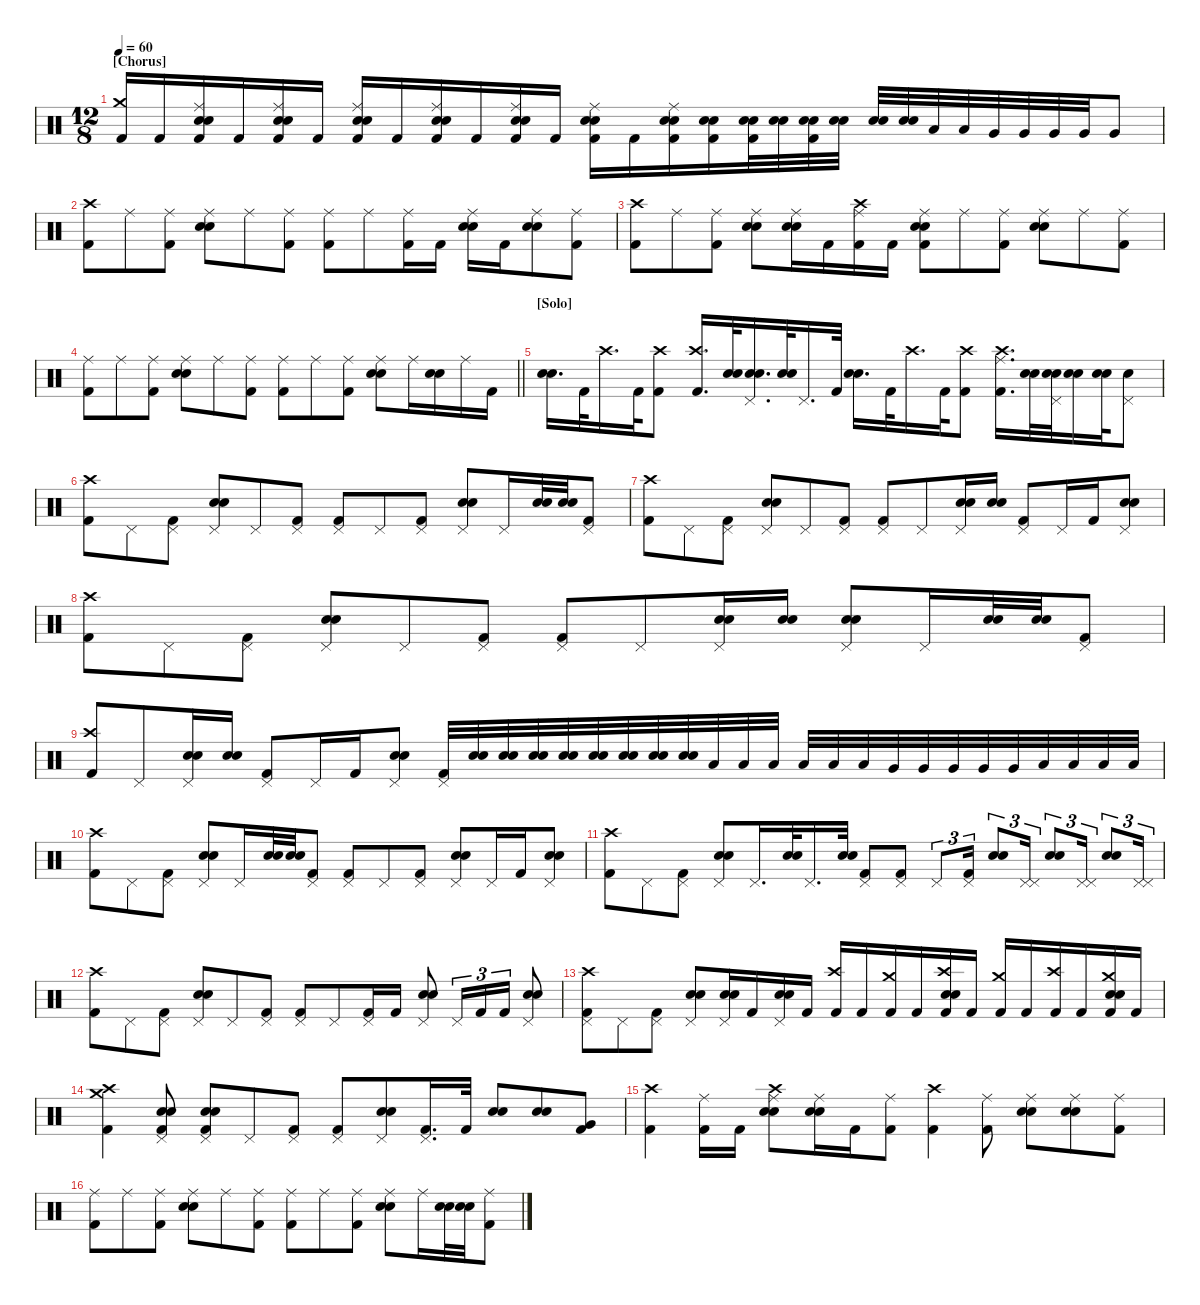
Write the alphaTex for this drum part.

\defaultSystemsLayout 4
\hideDynamics
\bracketExtendMode nobrackets
\singleTrackTrackNamePolicy hidden
\multiTrackTrackNamePolicy hidden
\otherSystemsTrackNameOrientation horizontal
\track ("Drums" "drm.") {instrument percussion}
\staff {score}
\articulation defaults
\ts (12 8)
\section ("" "[Chorus]")
\tempo 60
\clef neutral
\ks c
("Crash medium (hit)" "Kick (hit) 2").16{dy f beam Up} "Kick (hit) 2".16{beam Up} ("Ride (middle)" "Snare (hit) 2" "Kick (hit) 2" "Snare (hit) 2").16{beam Up} "Kick (hit) 2".16{beam Up} ("Ride (middle)" "Snare (hit) 2" "Kick (hit) 2" "Snare (hit) 2").16{beam Up} "Kick (hit) 2".16{beam Up} ("Ride (middle)" "Snare (hit) 2" "Kick (hit) 2" "Snare (hit) 2").16{beam Up} "Kick (hit) 2".16{beam Up} ("Ride (middle)" "Snare (hit) 2" "Kick (hit) 2" "Snare (hit) 2").16{beam Up} "Kick (hit) 2".16{beam Up} ("Ride (middle)" "Snare (hit) 2" "Kick (hit) 2" "Snare (hit) 2").16{beam Up} "Kick (hit) 2".16{beam Up} ("Ride (middle)" "Snare (hit) 2" "Kick (hit) 2" "Snare (hit) 2").16{beam Down} "Kick (hit) 2".16{beam Down} ("Ride (middle)" "Snare (hit) 2" "Kick (hit) 2" "Snare (hit) 2").16{beam Down} ("Snare (hit) 2" "Kick (hit) 2" "Snare (hit) 2").16{beam Down} ("Snare (hit) 2" "Kick (hit) 2" "Snare (hit) 2").32{beam Down} ("Snare (hit) 2" "Snare (hit) 2").32{beam Down} ("Snare (hit) 2" "Kick (hit) 2" "Snare (hit) 2").32{beam Down} ("Snare (hit) 2" "Snare (hit) 2").32{beam Down} ("Snare (hit) 2" "Snare (hit) 2").32{beam Up} ("Snare (hit) 2" "Snare (hit) 2").32{beam Up} "Low Tom (hit)".32{beam Up} "Low Tom (hit)".32{beam Up} "Very Low Tom (hit)".32{beam Up} "Very Low Tom (hit)".32{beam Up} "Very Low Tom (hit)".32{beam Up} "Very Low Tom (hit)".32{beam Up} "Very Low Tom (hit)".8{beam Up} |
("Crash high (hit)" "Kick (hit) 2").8{beam Down} "Ride (middle)".8{beam Down} ("Ride (middle)" "Kick (hit) 2").8{beam Down} ("Ride (middle)" "Snare (hit) 2" "Snare (hit) 2").8{beam Down} "Ride (middle)".8{beam Down} ("Ride (middle)" "Kick (hit) 2").8{beam Down} ("Ride (middle)" "Kick (hit) 2").8{beam Down} "Ride (middle)".8{beam Down} ("Ride (middle)" "Kick (hit) 2").16{beam Down} "Kick (hit) 2".16{beam Down} ("Ride (middle)" "Snare (hit) 2" "Snare (hit) 2").16{beam Down} "Kick (hit) 2".16{beam Down} ("Ride (middle)" "Snare (hit) 2" "Snare (hit) 2").8{beam Down} ("Ride (middle)" "Kick (hit) 2").8{beam Down} |
("Crash high (hit)" "Kick (hit) 2").8{beam Down} "Ride (middle)".8{beam Down} ("Ride (middle)" "Kick (hit) 2").8{beam Down} ("Ride (middle)" "Snare (hit) 2" "Snare (hit) 2").8{beam Down} ("Ride (middle)" "Snare (hit) 2" "Snare (hit) 2").16{beam Down} "Kick (hit) 2".16{beam Down} ("Ride (middle)" "Crash high (hit)" "Kick (hit) 2").16{beam Down} "Kick (hit) 2".16{beam Down} ("Ride (middle)" "Snare (hit) 2" "Kick (hit) 2" "Snare (hit) 2").8{beam Down} "Ride (middle)".8{beam Down} ("Ride (middle)" "Kick (hit) 2").8{beam Down} ("Ride (middle)" "Snare (hit) 2" "Snare (hit) 2").8{beam Down} "Ride (middle)".8{beam Down} ("Ride (middle)" "Kick (hit) 2").8{beam Down} |
\barLineRight lightlight
("Ride (middle)" "Kick (hit) 2").8{beam Down} "Ride (middle)".8{beam Down} ("Ride (middle)" "Kick (hit) 2").8{beam Down} ("Ride (middle)" "Snare (hit) 2" "Snare (hit) 2").8{beam Down} "Ride (middle)".8{beam Down} ("Ride (middle)" "Kick (hit) 2").8{beam Down} ("Ride (middle)" "Kick (hit) 2").8{beam Down} "Ride (middle)".8{beam Down} ("Ride (middle)" "Kick (hit) 2").8{beam Down} ("Ride (middle)" "Snare (hit) 2" "Snare (hit) 2").8{beam Down} "Ride (middle)".16{beam Down} ("Snare (hit) 2" "Snare (hit) 2").16{dy mf beam Down} "Ride (middle)".16{dy f beam Down} "Kick (hit) 2".16{beam Down} |
\section ("" "[Solo]")
("Snare (hit) 2" "Snare (hit) 2").16{d dy mf beam Down} "Kick (hit) 2".32{dy f beam Down} "Crash high (hit)".16{d beam Down} "Kick (hit) 2".32{beam Down} ("Crash high (hit)" "Kick (hit) 2").8{beam Down} ("Crash high (hit)" "Kick (hit) 2").16{d beam Up} ("Snare (hit) 2" "Snare (hit) 2").32{dy mf beam Up} ("Pedal Hi-Hat (hit)" "Snare (hit) 2" "Snare (hit) 2").16{d dy f beam Up} ("Snare (hit) 2" "Snare (hit) 2").32{beam Up} "Pedal Hi-Hat (hit)".16{d beam Up} "Kick (hit) 2".32{beam Up} ("Snare (hit) 2" "Snare (hit) 2").16{d beam Down} "Kick (hit) 2".32{beam Down} "Crash high (hit)".16{d beam Down} "Kick (hit) 2".32{beam Down} ("Kick (hit) 2" "Crash high (hit)").8{beam Down} ("Ride (middle)" "Kick (hit) 2" "Crash high (hit)").16{d beam Down} ("Snare (hit) 2" "Snare (hit) 2").32{beam Down} ("Pedal Hi-Hat (hit)" "Snare (hit) 2" "Snare (hit) 2").32{beam Down} ("Snare (hit) 2" "Snare (hit) 2").16{dy mf beam Down} ("Snare (hit) 2" "Snare (hit) 2").32{beam Down} ("Pedal Hi-Hat (hit)" "Snare (hit) 2").8{dy f beam Down} |
("Crash high (hit)" "Kick (hit) 2").8{dy fff beam Down} "Pedal Hi-Hat (hit)".8{dy f beam Down} ("Pedal Hi-Hat (hit)" "Kick (hit) 2").8{beam Down} ("Pedal Hi-Hat (hit)" "Snare (hit) 2" "Snare (hit) 2").8{beam Up} "Pedal Hi-Hat (hit)".8{beam Up} ("Pedal Hi-Hat (hit)" "Kick (hit) 2").8{beam Up} ("Pedal Hi-Hat (hit)" "Kick (hit) 2").8{beam Up} "Pedal Hi-Hat (hit)".8{beam Up} ("Pedal Hi-Hat (hit)" "Kick (hit) 2").8{beam Up} ("Pedal Hi-Hat (hit)" "Snare (hit) 2" "Snare (hit) 2").8{beam Up} "Pedal Hi-Hat (hit)".16{beam Up} ("Snare (hit) 2" "Snare (hit) 2").32{beam Up} ("Snare (hit) 2" "Snare (hit) 2").32{dy mf beam Up} ("Pedal Hi-Hat (hit)" "Kick (hit) 2").8{dy f beam Up} |
("Crash high (hit)" "Kick (hit) 2").8{dy fff beam Down} "Pedal Hi-Hat (hit)".8{dy f beam Down} ("Pedal Hi-Hat (hit)" "Kick (hit) 2").8{beam Down} ("Pedal Hi-Hat (hit)" "Snare (hit) 2" "Snare (hit) 2").8{beam Up} "Pedal Hi-Hat (hit)".8{beam Up} ("Pedal Hi-Hat (hit)" "Kick (hit) 2").8{beam Up} ("Pedal Hi-Hat (hit)" "Kick (hit) 2").8{beam Up} "Pedal Hi-Hat (hit)".8{beam Up} ("Pedal Hi-Hat (hit)" "Snare (hit) 2" "Snare (hit) 2").16{beam Up} ("Snare (hit) 2" "Snare (hit) 2").16{dy mf beam Up} ("Pedal Hi-Hat (hit)" "Kick (hit) 2").8{dy f beam Up} "Pedal Hi-Hat (hit)".16{beam Up} "Kick (hit) 2".16{beam Up} ("Pedal Hi-Hat (hit)" "Snare (hit) 2" "Snare (hit) 2").8{beam Up} |
("Crash high (hit)" "Kick (hit) 2").8{dy fff beam Down} "Pedal Hi-Hat (hit)".8{dy f beam Down} ("Pedal Hi-Hat (hit)" "Kick (hit) 2").8{beam Down} ("Pedal Hi-Hat (hit)" "Snare (hit) 2" "Snare (hit) 2").8{beam Up} "Pedal Hi-Hat (hit)".8{beam Up} ("Pedal Hi-Hat (hit)" "Kick (hit) 2").8{beam Up} ("Pedal Hi-Hat (hit)" "Kick (hit) 2").8{beam Up} "Pedal Hi-Hat (hit)".8{beam Up} ("Pedal Hi-Hat (hit)" "Snare (hit) 2" "Snare (hit) 2").16{beam Up} ("Snare (hit) 2" "Snare (hit) 2").16{dy mf beam Up} ("Pedal Hi-Hat (hit)" "Snare (hit) 2" "Snare (hit) 2").8{dy f beam Up} "Pedal Hi-Hat (hit)".16{beam Up} ("Snare (hit) 2" "Snare (hit) 2").32{beam Up} ("Snare (hit) 2" "Snare (hit) 2").32{beam Up} ("Pedal Hi-Hat (hit)" "Kick (hit) 2").8{beam Up} |
("Crash high (hit)" "Kick (hit) 2").8{dy fff beam Up} "Pedal Hi-Hat (hit)".8{dy f beam Up} ("Pedal Hi-Hat (hit)" "Snare (hit) 2" "Snare (hit) 2").16{beam Up} ("Snare (hit) 2" "Snare (hit) 2").16{dy mf beam Up} ("Pedal Hi-Hat (hit)" "Kick (hit) 2").8{dy f beam Up} "Pedal Hi-Hat (hit)".16{beam Up} "Kick (hit) 2".16{beam Up} ("Pedal Hi-Hat (hit)" "Snare (hit) 2" "Snare (hit) 2").8{beam Up} ("Pedal Hi-Hat (hit)" "Kick (hit) 2").32{beam Up} ("Snare (hit) 2" "Snare (hit) 2").32{dy mf beam Up} ("Snare (hit) 2" "Snare (hit) 2").32{beam Up} ("Snare (hit) 2" "Snare (hit) 2").32{beam Up} ("Snare (hit) 2" "Snare (hit) 2").32{beam Up} ("Snare (hit) 2" "Snare (hit) 2").32{beam Up} ("Snare (hit) 2" "Snare (hit) 2").32{beam Up} ("Snare (hit) 2" "Snare (hit) 2").32{beam Up} ("Snare (hit) 2" "Snare (hit) 2").32{beam Up} "Low Tom (hit)".32{dy f beam Up} "Low Tom (hit)".32{beam Up} "Low Tom (hit)".32{beam Up} "Low Tom (hit)".32{beam Up} "Low Tom (hit)".32{beam Up} "Low Tom (hit)".32{beam Up} "Very Low Tom (hit)".32{beam Up} "Very Low Tom (hit)".32{beam Up} "Very Low Tom (hit)".32{beam Up} "Very Low Tom (hit)".32{beam Up} "Very Low Tom (hit)".32{beam Up} "Low Floor Tom (hit)".32{beam Up} "Low Floor Tom (hit)".32{beam Up} "Low Floor Tom (hit)".32{beam Up} "Low Floor Tom (hit)".32{beam Up} |
("Crash high (hit)" "Kick (hit) 2").8{dy fff beam Down} "Pedal Hi-Hat (hit)".8{dy f beam Down} ("Pedal Hi-Hat (hit)" "Kick (hit) 2").8{beam Down} ("Pedal Hi-Hat (hit)" "Snare (hit) 2" "Snare (hit) 2").8{beam Up} "Pedal Hi-Hat (hit)".16{beam Up} ("Snare (hit) 2" "Snare (hit) 2").32{beam Up} ("Snare (hit) 2" "Snare (hit) 2").32{beam Up} ("Pedal Hi-Hat (hit)" "Kick (hit) 2").8{beam Up} ("Pedal Hi-Hat (hit)" "Kick (hit) 2").8{beam Up} "Pedal Hi-Hat (hit)".8{beam Up} ("Pedal Hi-Hat (hit)" "Kick (hit) 2").8{beam Up} ("Pedal Hi-Hat (hit)" "Snare (hit) 2" "Snare (hit) 2").8{beam Up} "Pedal Hi-Hat (hit)".16{beam Up} "Kick (hit) 2".16{beam Up} ("Pedal Hi-Hat (hit)" "Snare (hit) 2" "Snare (hit) 2").8{beam Up} |
("Crash high (hit)" "Kick (hit) 2").8{dy fff beam Down} "Pedal Hi-Hat (hit)".8{dy f beam Down} ("Pedal Hi-Hat (hit)" "Kick (hit) 2").8{beam Down} ("Pedal Hi-Hat (hit)" "Snare (hit) 2" "Snare (hit) 2").8{beam Up} "Pedal Hi-Hat (hit)".16{d beam Up} ("Snare (hit) 2" "Snare (hit) 2").32{beam Up} "Pedal Hi-Hat (hit)".16{d beam Up} ("Snare (hit) 2" "Snare (hit) 2").32{beam Up} ("Pedal Hi-Hat (hit)" "Kick (hit) 2").8{beam Up} ("Pedal Hi-Hat (hit)" "Kick (hit) 2").8{beam Up} "Pedal Hi-Hat (hit)".8{tu (3 2) beam Up} ("Pedal Hi-Hat (hit)" "Kick (hit) 2").16{tu (3 2) beam Up} ("Snare (hit) 2" "Snare (hit) 2").8{tu (3 2) beam Up} ("Pedal Hi-Hat (hit)" "Pedal Hi-Hat (hit)").16{tu (3 2) dy fff beam Up} ("Snare (hit) 2" "Snare (hit) 2").8{tu (3 2) dy f beam Up} ("Pedal Hi-Hat (hit)" "Pedal Hi-Hat (hit)").16{tu (3 2) dy fff beam Up} ("Snare (hit) 2" "Snare (hit) 2").8{tu (3 2) dy f beam Up} ("Pedal Hi-Hat (hit)" "Pedal Hi-Hat (hit)").16{tu (3 2) dy fff beam Up} |
("Crash high (hit)" "Kick (hit) 2").8{beam Down} "Pedal Hi-Hat (hit)".8{dy f beam Down} ("Pedal Hi-Hat (hit)" "Kick (hit) 2").8{beam Down} ("Pedal Hi-Hat (hit)" "Snare (hit) 2" "Snare (hit) 2").8{beam Up} "Pedal Hi-Hat (hit)".8{beam Up} ("Pedal Hi-Hat (hit)" "Kick (hit) 2").8{beam Up} ("Pedal Hi-Hat (hit)" "Kick (hit) 2").8{beam Up} "Pedal Hi-Hat (hit)".8{beam Up} ("Pedal Hi-Hat (hit)" "Kick (hit) 2").16{beam Up} "Kick (hit) 2".16{beam Up} ("Pedal Hi-Hat (hit)" "Snare (hit) 2" "Snare (hit) 2").8{beam Up} "Pedal Hi-Hat (hit)".16{tu (3 2) beam Up} "Kick (hit) 2".16{tu (3 2) beam Up} "Kick (hit) 2".16{tu (3 2) beam Up} ("Pedal Hi-Hat (hit)" "Snare (hit) 2" "Snare (hit) 2").8{beam Up} |
("Kick (hit) 2" "Pedal Hi-Hat (hit)" "Crash high (hit)").8{dy mf beam Down} "Pedal Hi-Hat (hit)".8{beam Down} ("Kick (hit) 2" "Pedal Hi-Hat (hit)").8{beam Down} ("Snare (hit) 2" "Pedal Hi-Hat (hit)" "Snare (hit) 2").8{beam Up} ("Snare (hit) 2" "Pedal Hi-Hat (hit)" "Snare (hit) 2").16{beam Up} "Kick (hit) 2".16{beam Up} ("Snare (hit) 2" "Pedal Hi-Hat (hit)" "Snare (hit) 2").16{beam Up} "Kick (hit) 2".16{beam Up} ("Kick (hit) 2" "Crash high (hit)").16{beam Up} "Kick (hit) 2".16{beam Up} ("Kick (hit) 2" "Crash medium (hit)").16{beam Up} "Kick (hit) 2".16{beam Up} ("Snare (hit) 2" "Kick (hit) 2" "Crash high (hit)" "Snare (hit) 2").16{beam Up} "Kick (hit) 2".16{beam Up} ("Crash medium (hit)" "Kick (hit) 2").16{beam Up} "Kick (hit) 2".16{beam Up} ("Kick (hit) 2" "Crash high (hit)").16{beam Up} "Kick (hit) 2".16{beam Up} ("Snare (hit) 2" "Kick (hit) 2" "Crash medium (hit)" "Snare (hit) 2").16{beam Up} "Kick (hit) 2".16{beam Up} |
("Crash high (hit)" "Crash medium (hit)" "Kick (hit) 2").4{dy fff beam Down} ("Pedal Hi-Hat (hit)" "Snare (hit) 2" "Kick (hit) 2" "Snare (hit) 2").8{dy f beam Up} ("Pedal Hi-Hat (hit)" "Snare (hit) 2" "Snare (hit) 2" "Kick (hit) 2").8{beam Up} "Pedal Hi-Hat (hit)".8{beam Up} ("Pedal Hi-Hat (hit)" "Kick (hit) 2").8{beam Up} ("Pedal Hi-Hat (hit)" "Kick (hit) 2").8{beam Up} ("Pedal Hi-Hat (hit)" "Snare (hit) 2" "Snare (hit) 2").8{beam Up} ("Pedal Hi-Hat (hit)" "Kick (hit) 2").16{d beam Up} "Kick (hit) 2".32{beam Up} ("Snare (hit) 2" "Snare (hit) 2").8{dy mf beam Up} ("Snare (hit) 2" "Snare (hit) 2").8{beam Up} ("Kick (hit) 2" "Very Low Tom (hit)").8{dy f beam Up} |
("Crash high (hit)" "Kick (hit) 2").4{dy fff beam Down} ("Ride (middle)" "Kick (hit) 2").16{dy f beam Down} "Kick (hit) 2".16{beam Down} ("Ride (middle)" "Snare (hit) 2" "Snare (hit) 2" "Crash high (hit)").8{beam Down} ("Ride (middle)" "Snare (hit) 2" "Snare (hit) 2").16{beam Down} "Kick (hit) 2".16{beam Down} ("Ride (middle)" "Kick (hit) 2").8{beam Down} ("Crash high (hit)" "Kick (hit) 2").4{beam Down} ("Ride (middle)" "Kick (hit) 2").8{beam Down} ("Ride (middle)" "Snare (hit) 2" "Snare (hit) 2").8{beam Down} ("Ride (middle)" "Snare (hit) 2" "Snare (hit) 2").8{beam Down} ("Ride (middle)" "Kick (hit) 2").8{beam Down} |
("Ride (middle)" "Kick (hit) 2").8{beam Down} "Ride (middle)".8{beam Down} ("Ride (middle)" "Kick (hit) 2").8{beam Down} ("Ride (middle)" "Snare (hit) 2" "Snare (hit) 2").8{beam Down} "Ride (middle)".8{beam Down} ("Ride (middle)" "Kick (hit) 2").8{beam Down} ("Ride (middle)" "Kick (hit) 2").8{beam Down} "Ride (middle)".8{beam Down} ("Ride (middle)" "Kick (hit) 2").8{beam Down} ("Ride (middle)" "Snare (hit) 2" "Snare (hit) 2").8{beam Down} "Ride (middle)".16{beam Down} ("Snare (hit) 2" "Snare (hit) 2").32{dy mf beam Down} ("Snare (hit) 2" "Snare (hit) 2").32{dy f beam Down} ("Ride (middle)" "Kick (hit) 2").8{beam Down}
